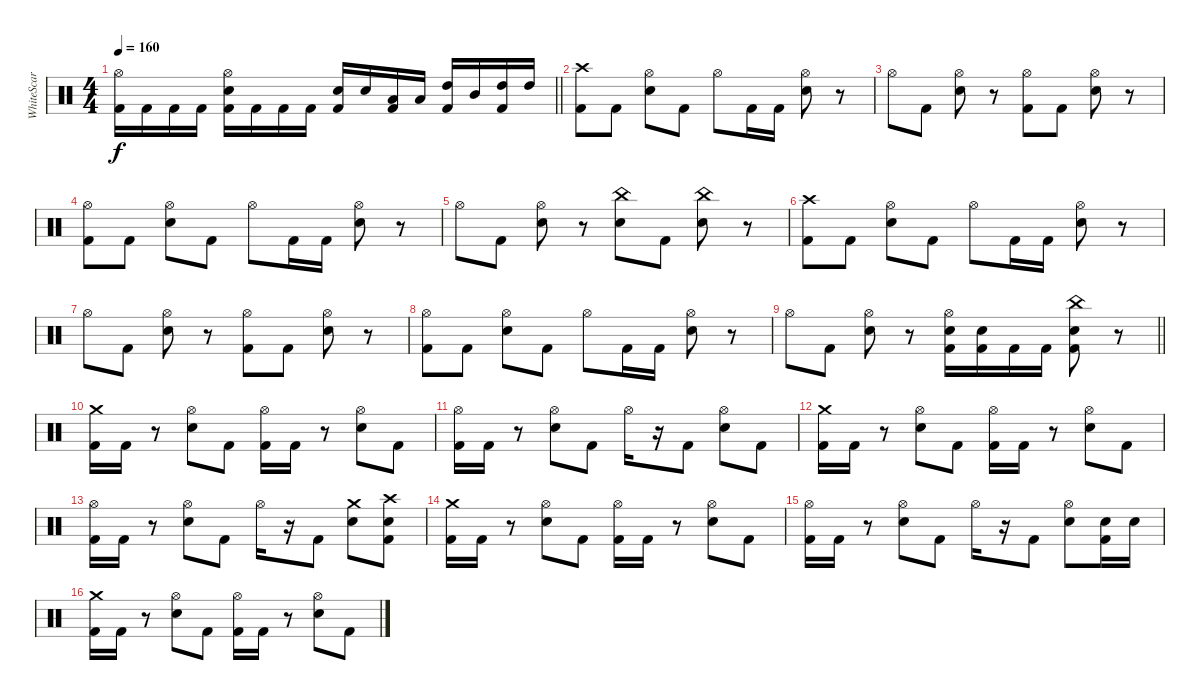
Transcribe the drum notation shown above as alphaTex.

\track ("WhiteScar" "WhiteScar") {instrument percussion}
\staff {score}
\articulation defaults
\ts (4 4)
\tempo 160
\clef neutral
\barLineRight lightlight
\ks c
("Hi-Hat (open)" "Kick (hit) 2").16{dy f} "Kick (hit) 2".16 "Kick (hit) 2".16 "Kick (hit) 2".16 ("Hi-Hat (open)" "Snare (hit) 2" "Kick (hit) 2").16 "Kick (hit) 2".16 "Kick (hit) 2".16 "Kick (hit) 2".16 ("Snare (hit) 2" "Kick (hit) 2").16 "Snare (hit) 2".16 ("Low Tom (hit)" "Kick (hit) 2").16 "Low Tom (hit)".16 ("High Tom (hit)" "Kick (hit) 2").16 "Mid Tom (hit)".16 ("High Tom (hit)" "Kick (hit) 2").16 "High Tom (hit)".16 |
("Crash high (hit)" "Kick (hit) 2").8 "Kick (hit) 2".8 ("Hi-Hat (open)" "Snare (hit) 2").8 "Kick (hit) 2".8 "Hi-Hat (open)".8 "Kick (hit) 2".16 "Kick (hit) 2".16 ("Hi-Hat (open)" "Snare (hit) 2").8 r.8 |
"Hi-Hat (open)".8 "Kick (hit) 2".8 ("Hi-Hat (open)" "Snare (hit) 2").8 r.8 ("Hi-Hat (open)" "Kick (hit) 2").8 "Kick (hit) 2".8 ("Hi-Hat (open)" "Snare (hit) 2").8 r.8 |
("Hi-Hat (open)" "Kick (hit) 2").8 "Kick (hit) 2".8 ("Hi-Hat (open)" "Snare (hit) 2").8 "Kick (hit) 2".8 "Hi-Hat (open)".8 "Kick (hit) 2".16 "Kick (hit) 2".16 ("Hi-Hat (open)" "Snare (hit) 2").8 r.8 |
"Hi-Hat (open)".8 "Kick (hit) 2".8 ("Hi-Hat (open)" "Snare (hit) 2").8 r.8 ("China (hit)" "Snare (hit) 2").8 "Kick (hit) 2".8 ("China (hit)" "Snare (hit) 2").8 r.8 |
("Crash high (hit)" "Kick (hit) 2").8 "Kick (hit) 2".8 ("Hi-Hat (open)" "Snare (hit) 2").8 "Kick (hit) 2".8 "Hi-Hat (open)".8 "Kick (hit) 2".16 "Kick (hit) 2".16 ("Hi-Hat (open)" "Snare (hit) 2").8 r.8 |
"Hi-Hat (open)".8 "Kick (hit) 2".8 ("Hi-Hat (open)" "Snare (hit) 2").8 r.8 ("Hi-Hat (open)" "Kick (hit) 2").8 "Kick (hit) 2".8 ("Hi-Hat (open)" "Snare (hit) 2").8 r.8 |
("Hi-Hat (open)" "Kick (hit) 2").8 "Kick (hit) 2".8 ("Hi-Hat (open)" "Snare (hit) 2").8 "Kick (hit) 2".8 "Hi-Hat (open)".8 "Kick (hit) 2".16 "Kick (hit) 2".16 ("Hi-Hat (open)" "Snare (hit) 2").8 r.8 |
\barLineRight lightlight "Hi-Hat (open)".8 "Kick (hit) 2".8
("Hi-Hat (open)" "Snare (hit) 2").8 r.8 ("Hi-Hat (open)" "Snare (hit) 2" "Kick (hit) 2").16 ("Snare (hit) 2" "Kick (hit) 2").16 "Kick (hit) 2".16 "Kick (hit) 2".16 ("China (hit)" "Snare (hit) 2" "Kick (hit) 2").8 r.8 |
("Crash medium (hit)" "Kick (hit) 2").16 "Kick (hit) 2".16 r.8 ("Hi-Hat (open)" "Snare (hit) 2").8 "Kick (hit) 2".8 ("Hi-Hat (open)" "Kick (hit) 2").16 "Kick (hit) 2".16 r.8 ("Hi-Hat (open)" "Snare (hit) 2").8 "Kick (hit) 2".8 |
("Hi-Hat (open)" "Kick (hit) 2").16 "Kick (hit) 2".16 r.8 ("Hi-Hat (open)" "Snare (hit) 2").8 "Kick (hit) 2".8 "Hi-Hat (open)".16 r.16 "Kick (hit) 2".8 ("Hi-Hat (open)" "Snare (hit) 2").8 "Kick (hit) 2".8 |
("Crash medium (hit)" "Kick (hit) 2").16 "Kick (hit) 2".16 r.8 ("Hi-Hat (open)" "Snare (hit) 2").8 "Kick (hit) 2".8 ("Hi-Hat (open)" "Kick (hit) 2").16 "Kick (hit) 2".16 r.8 ("Hi-Hat (open)" "Snare (hit) 2").8 "Kick (hit) 2".8 |
("Hi-Hat (open)" "Kick (hit) 2").16 "Kick (hit) 2".16 r.8 ("Hi-Hat (open)" "Snare (hit) 2").8 "Kick (hit) 2".8 "Hi-Hat (open)".16 r.16 "Kick (hit) 2".8 ("Crash medium (hit)" "Snare (hit) 2").8 ("Crash high (hit)" "Snare (hit) 2" "Kick (hit) 2").8 |
("Crash medium (hit)" "Kick (hit) 2").16 "Kick (hit) 2".16 r.8 ("Hi-Hat (open)" "Snare (hit) 2").8 "Kick (hit) 2".8 ("Hi-Hat (open)" "Kick (hit) 2").16 "Kick (hit) 2".16 r.8 ("Hi-Hat (open)" "Snare (hit) 2").8 "Kick (hit) 2".8 |
("Hi-Hat (open)" "Kick (hit) 2").16 "Kick (hit) 2".16 r.8 ("Hi-Hat (open)" "Snare (hit) 2").8 "Kick (hit) 2".8 "Hi-Hat (open)".16 r.16 "Kick (hit) 2".8 ("Hi-Hat (open)" "Snare (hit) 2").8 ("Snare (hit) 2" "Kick (hit) 2").16 "Snare (hit) 2".16 |
("Crash medium (hit)" "Kick (hit) 2").16 "Kick (hit) 2".16 r.8 ("Hi-Hat (open)" "Snare (hit) 2").8 "Kick (hit) 2".8 ("Hi-Hat (open)" "Kick (hit) 2").16 "Kick (hit) 2".16 r.8 ("Hi-Hat (open)" "Snare (hit) 2").8 "Kick (hit) 2".8
